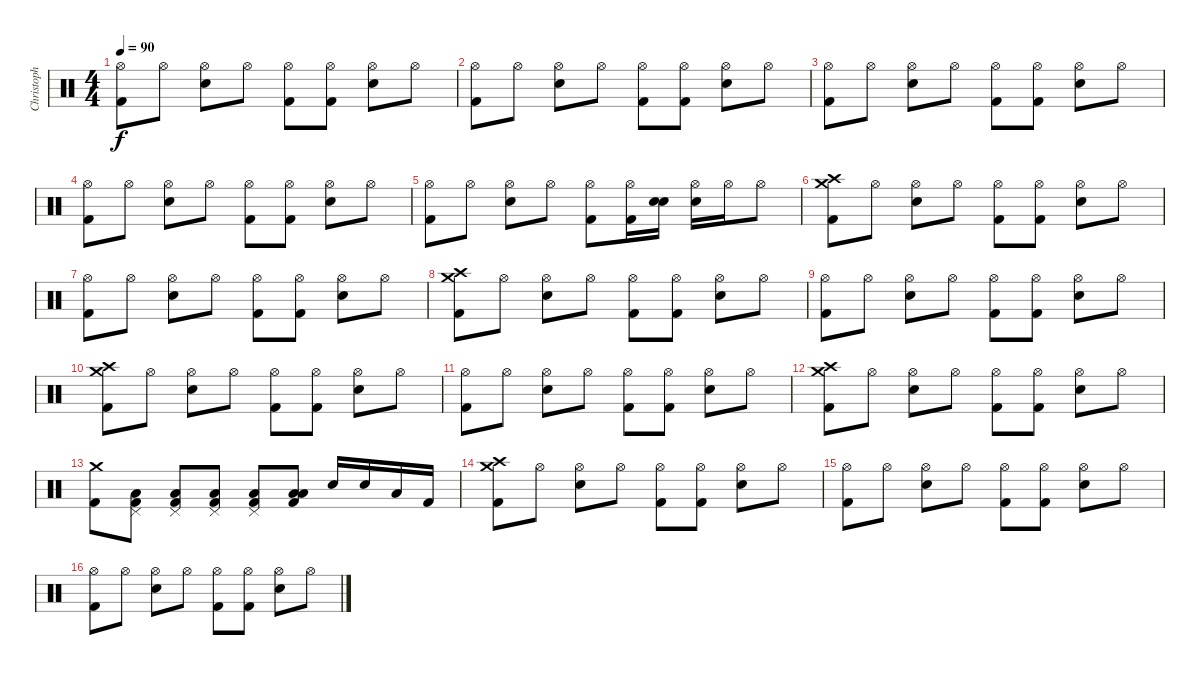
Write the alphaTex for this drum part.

\track ("Christoph Schneider" "Christoph ") {instrument percussion}
\staff {score}
\articulation defaults
\ts (4 4)
\tempo 90
\clef neutral
\ks c
("Kick (hit) 2" "Hi-Hat (open)").8{dy f} "Hi-Hat (open)".8 ("Snare (hit) 2" "Hi-Hat (open)").8 "Hi-Hat (open)".8 ("Kick (hit) 2" "Hi-Hat (open)").8 ("Kick (hit) 2" "Hi-Hat (open)").8 ("Snare (hit) 2" "Hi-Hat (open)").8 "Hi-Hat (open)".8 |
("Kick (hit) 2" "Hi-Hat (open)").8 "Hi-Hat (open)".8 ("Snare (hit) 2" "Hi-Hat (open)").8 "Hi-Hat (open)".8 ("Kick (hit) 2" "Hi-Hat (open)").8 ("Kick (hit) 2" "Hi-Hat (open)").8 ("Snare (hit) 2" "Hi-Hat (open)").8 "Hi-Hat (open)".8 |
("Kick (hit) 2" "Hi-Hat (open)").8 "Hi-Hat (open)".8 ("Snare (hit) 2" "Hi-Hat (open)").8 "Hi-Hat (open)".8 ("Kick (hit) 2" "Hi-Hat (open)").8 ("Kick (hit) 2" "Hi-Hat (open)").8 ("Snare (hit) 2" "Hi-Hat (open)").8 "Hi-Hat (open)".8 |
("Kick (hit) 2" "Hi-Hat (open)").8 "Hi-Hat (open)".8 ("Snare (hit) 2" "Hi-Hat (open)").8 "Hi-Hat (open)".8 ("Kick (hit) 2" "Hi-Hat (open)").8 ("Kick (hit) 2" "Hi-Hat (open)").8 ("Snare (hit) 2" "Hi-Hat (open)").8 "Hi-Hat (open)".8 |
("Kick (hit) 2" "Hi-Hat (open)").8 "Hi-Hat (open)".8 ("Snare (hit) 2" "Hi-Hat (open)").8 "Hi-Hat (open)".8 ("Kick (hit) 2" "Hi-Hat (open)").8 ("Kick (hit) 2" "Hi-Hat (open)").16 ("Snare (hit) 2" "Snare (hit) 2").16 ("Snare (hit) 2" "Hi-Hat (open)").16 "Hi-Hat (open)".16 "Hi-Hat (open)".8 |
("Crash medium (hit)" "Kick (hit) 2" "Crash high (hit)").8 "Hi-Hat (open)".8 ("Snare (hit) 2" "Hi-Hat (open)").8 "Hi-Hat (open)".8 ("Kick (hit) 2" "Hi-Hat (open)").8 ("Kick (hit) 2" "Hi-Hat (open)").8 ("Snare (hit) 2" "Hi-Hat (open)").8 "Hi-Hat (open)".8 |
("Kick (hit) 2" "Hi-Hat (open)").8 "Hi-Hat (open)".8 ("Snare (hit) 2" "Hi-Hat (open)").8 "Hi-Hat (open)".8 ("Kick (hit) 2" "Hi-Hat (open)").8 ("Kick (hit) 2" "Hi-Hat (open)").8 ("Snare (hit) 2" "Hi-Hat (open)").8 "Hi-Hat (open)".8 |
("Crash medium (hit)" "Kick (hit) 2" "Crash high (hit)").8 "Hi-Hat (open)".8 ("Snare (hit) 2" "Hi-Hat (open)").8 "Hi-Hat (open)".8 ("Kick (hit) 2" "Hi-Hat (open)").8 ("Kick (hit) 2" "Hi-Hat (open)").8 ("Snare (hit) 2" "Hi-Hat (open)").8 "Hi-Hat (open)".8 |
("Kick (hit) 2" "Hi-Hat (open)").8 "Hi-Hat (open)".8 ("Snare (hit) 2" "Hi-Hat (open)").8 "Hi-Hat (open)".8 ("Kick (hit) 2" "Hi-Hat (open)").8 ("Kick (hit) 2" "Hi-Hat (open)").8 ("Snare (hit) 2" "Hi-Hat (open)").8 "Hi-Hat (open)".8 |
("Crash medium (hit)" "Kick (hit) 2" "Crash high (hit)").8 "Hi-Hat (open)".8 ("Snare (hit) 2" "Hi-Hat (open)").8 "Hi-Hat (open)".8 ("Kick (hit) 2" "Hi-Hat (open)").8 ("Kick (hit) 2" "Hi-Hat (open)").8 ("Snare (hit) 2" "Hi-Hat (open)").8 "Hi-Hat (open)".8 |
("Kick (hit) 2" "Hi-Hat (open)").8 "Hi-Hat (open)".8 ("Snare (hit) 2" "Hi-Hat (open)").8 "Hi-Hat (open)".8 ("Kick (hit) 2" "Hi-Hat (open)").8 ("Kick (hit) 2" "Hi-Hat (open)").8 ("Snare (hit) 2" "Hi-Hat (open)").8 "Hi-Hat (open)".8 |
("Crash medium (hit)" "Kick (hit) 2" "Crash high (hit)").8 "Hi-Hat (open)".8 ("Snare (hit) 2" "Hi-Hat (open)").8 "Hi-Hat (open)".8 ("Kick (hit) 2" "Hi-Hat (open)").8 ("Kick (hit) 2" "Hi-Hat (open)").8 ("Snare (hit) 2" "Hi-Hat (open)").8 "Hi-Hat (open)".8 |
("Crash medium (hit)" "Kick (hit) 2").8 ("Kick (hit) 2" "Low Tom (hit)" "Pedal Hi-Hat (hit)").8 ("Kick (hit) 2" "Low Tom (hit)" "Pedal Hi-Hat (hit)").8 ("Kick (hit) 2" "Low Tom (hit)" "Pedal Hi-Hat (hit)").8 ("Kick (hit) 2" "Low Tom (hit)" "Pedal Hi-Hat (hit)").8 ("Kick (hit) 2" "Low Tom (hit)" "Low Tom (hit)").8 "Snare (hit) 2".16 "Snare (hit) 2".16 "Low Tom (hit)".16 "Kick (hit) 2".16 |
("Crash medium (hit)" "Kick (hit) 2" "Crash high (hit)").8 "Hi-Hat (open)".8 ("Snare (hit) 2" "Hi-Hat (open)").8 "Hi-Hat (open)".8 ("Kick (hit) 2" "Hi-Hat (open)").8 ("Kick (hit) 2" "Hi-Hat (open)").8 ("Snare (hit) 2" "Hi-Hat (open)").8 "Hi-Hat (open)".8 |
("Kick (hit) 2" "Hi-Hat (open)").8 "Hi-Hat (open)".8 ("Snare (hit) 2" "Hi-Hat (open)").8 "Hi-Hat (open)".8 ("Kick (hit) 2" "Hi-Hat (open)").8 ("Kick (hit) 2" "Hi-Hat (open)").8 ("Snare (hit) 2" "Hi-Hat (open)").8 "Hi-Hat (open)".8 |
("Kick (hit) 2" "Hi-Hat (open)").8 "Hi-Hat (open)".8 ("Snare (hit) 2" "Hi-Hat (open)").8 "Hi-Hat (open)".8 ("Kick (hit) 2" "Hi-Hat (open)").8 ("Kick (hit) 2" "Hi-Hat (open)").8 ("Snare (hit) 2" "Hi-Hat (open)").8 "Hi-Hat (open)".8
